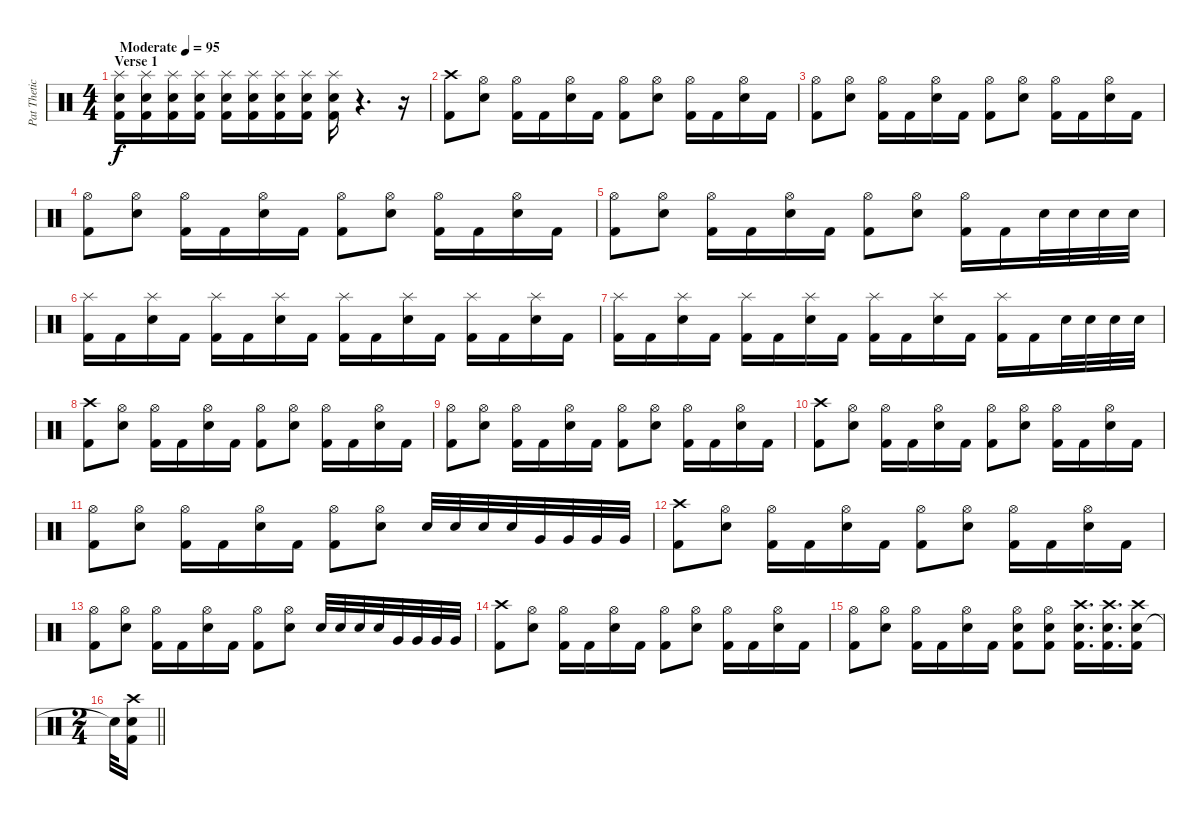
\track ("Pat Thetic" "Pat Thetic") {instrument percussion}
\staff {score}
\articulation defaults
\ts (4 4)
\section ("" "Verse 1")
\tempo (95 "Moderate")
\clef neutral
\ks c
("Kick (hit) 2" "Snare (hit) 2" "Splash (hit)").16{dy f} ("Kick (hit) 2" "Snare (hit) 2" "Splash (hit)").16 ("Kick (hit) 2" "Snare (hit) 2" "Splash (hit)").16 ("Kick (hit) 2" "Snare (hit) 2" "Splash (hit)").16 ("Kick (hit) 2" "Snare (hit) 2" "Splash (hit)").16 ("Kick (hit) 2" "Snare (hit) 2" "Splash (hit)").16 ("Kick (hit) 2" "Snare (hit) 2" "Splash (hit)").16 ("Kick (hit) 2" "Snare (hit) 2" "Splash (hit)").16 ("Kick (hit) 2" "Snare (hit) 2" "Splash (hit)").16 r.4{d} r.16 |
("Kick (hit) 2" "Crash high (hit)").8 ("Snare (hit) 2" "Hi-Hat (open)").8 ("Kick (hit) 2" "Hi-Hat (open)").16 "Kick (hit) 2".16 ("Snare (hit) 2" "Hi-Hat (open)").16 "Kick (hit) 2".16 ("Kick (hit) 2" "Hi-Hat (open)").8 ("Snare (hit) 2" "Hi-Hat (open)").8 ("Kick (hit) 2" "Hi-Hat (open)").16 "Kick (hit) 2".16 ("Snare (hit) 2" "Hi-Hat (open)").16 "Kick (hit) 2".16 |
("Kick (hit) 2" "Hi-Hat (open)").8 ("Snare (hit) 2" "Hi-Hat (open)").8 ("Kick (hit) 2" "Hi-Hat (open)").16 "Kick (hit) 2".16 ("Snare (hit) 2" "Hi-Hat (open)").16 "Kick (hit) 2".16 ("Kick (hit) 2" "Hi-Hat (open)").8 ("Snare (hit) 2" "Hi-Hat (open)").8 ("Kick (hit) 2" "Hi-Hat (open)").16 "Kick (hit) 2".16 ("Snare (hit) 2" "Hi-Hat (open)").16 "Kick (hit) 2".16 |
("Kick (hit) 2" "Hi-Hat (open)").8 ("Snare (hit) 2" "Hi-Hat (open)").8 ("Kick (hit) 2" "Hi-Hat (open)").16 "Kick (hit) 2".16 ("Snare (hit) 2" "Hi-Hat (open)").16 "Kick (hit) 2".16 ("Kick (hit) 2" "Hi-Hat (open)").8 ("Snare (hit) 2" "Hi-Hat (open)").8 ("Kick (hit) 2" "Hi-Hat (open)").16 "Kick (hit) 2".16 ("Snare (hit) 2" "Hi-Hat (open)").16 "Kick (hit) 2".16 |
("Kick (hit) 2" "Hi-Hat (open)").8 ("Snare (hit) 2" "Hi-Hat (open)").8 ("Kick (hit) 2" "Hi-Hat (open)").16 "Kick (hit) 2".16 ("Snare (hit) 2" "Hi-Hat (open)").16 "Kick (hit) 2".16 ("Kick (hit) 2" "Hi-Hat (open)").8 ("Snare (hit) 2" "Hi-Hat (open)").8 ("Kick (hit) 2" "Hi-Hat (open)").16 "Kick (hit) 2".16 "Snare (hit) 2".32 "Snare (hit) 2".32 "Snare (hit) 2".32 "Snare (hit) 2".32 |
("Kick (hit) 2" "Splash (hit)").16 "Kick (hit) 2".16 ("Snare (hit) 2" "Splash (hit)").16 "Kick (hit) 2".16 ("Kick (hit) 2" "Splash (hit)").16 "Kick (hit) 2".16 ("Snare (hit) 2" "Splash (hit)").16 "Kick (hit) 2".16 ("Kick (hit) 2" "Splash (hit)").16 "Kick (hit) 2".16 ("Snare (hit) 2" "Splash (hit)").16 "Kick (hit) 2".16 ("Kick (hit) 2" "Splash (hit)").16 "Kick (hit) 2".16 ("Snare (hit) 2" "Splash (hit)").16 "Kick (hit) 2".16 |
("Kick (hit) 2" "Splash (hit)").16 "Kick (hit) 2".16 ("Snare (hit) 2" "Splash (hit)").16 "Kick (hit) 2".16 ("Kick (hit) 2" "Splash (hit)").16 "Kick (hit) 2".16 ("Snare (hit) 2" "Splash (hit)").16 "Kick (hit) 2".16 ("Kick (hit) 2" "Splash (hit)").16 "Kick (hit) 2".16 ("Snare (hit) 2" "Splash (hit)").16 "Kick (hit) 2".16 ("Kick (hit) 2" "Splash (hit)").16 "Kick (hit) 2".16 "Snare (hit) 2".32 "Snare (hit) 2".32 "Snare (hit) 2".32 "Snare (hit) 2".32 |
("Kick (hit) 2" "Crash high (hit)").8 ("Snare (hit) 2" "Hi-Hat (open)").8 ("Kick (hit) 2" "Hi-Hat (open)").16 "Kick (hit) 2".16 ("Snare (hit) 2" "Hi-Hat (open)").16 "Kick (hit) 2".16 ("Kick (hit) 2" "Hi-Hat (open)").8 ("Snare (hit) 2" "Hi-Hat (open)").8 ("Kick (hit) 2" "Hi-Hat (open)").16 "Kick (hit) 2".16 ("Snare (hit) 2" "Hi-Hat (open)").16 "Kick (hit) 2".16 |
("Kick (hit) 2" "Hi-Hat (open)").8 ("Snare (hit) 2" "Hi-Hat (open)").8 ("Kick (hit) 2" "Hi-Hat (open)").16 "Kick (hit) 2".16 ("Snare (hit) 2" "Hi-Hat (open)").16 "Kick (hit) 2".16 ("Kick (hit) 2" "Hi-Hat (open)").8 ("Snare (hit) 2" "Hi-Hat (open)").8 ("Kick (hit) 2" "Hi-Hat (open)").16 "Kick (hit) 2".16 ("Snare (hit) 2" "Hi-Hat (open)").16 "Kick (hit) 2".16 |
("Kick (hit) 2" "Crash high (hit)").8 ("Snare (hit) 2" "Hi-Hat (open)").8 ("Kick (hit) 2" "Hi-Hat (open)").16 "Kick (hit) 2".16 ("Snare (hit) 2" "Hi-Hat (open)").16 "Kick (hit) 2".16 ("Kick (hit) 2" "Hi-Hat (open)").8 ("Snare (hit) 2" "Hi-Hat (open)").8 ("Kick (hit) 2" "Hi-Hat (open)").16 "Kick (hit) 2".16 ("Snare (hit) 2" "Hi-Hat (open)").16 "Kick (hit) 2".16 |
("Kick (hit) 2" "Hi-Hat (open)").8 ("Snare (hit) 2" "Hi-Hat (open)").8 ("Kick (hit) 2" "Hi-Hat (open)").16 "Kick (hit) 2".16 ("Snare (hit) 2" "Hi-Hat (open)").16 "Kick (hit) 2".16 ("Kick (hit) 2" "Hi-Hat (open)").8 ("Snare (hit) 2" "Hi-Hat (open)").8 "Snare (hit) 2".32 "Snare (hit) 2".32 "Snare (hit) 2".32 "Snare (hit) 2".32 "Very Low Tom (hit)".32 "Very Low Tom (hit)".32 "Very Low Tom (hit)".32 "Very Low Tom (hit)".32 |
("Kick (hit) 2" "Crash high (hit)").8 ("Snare (hit) 2" "Hi-Hat (open)").8 ("Kick (hit) 2" "Hi-Hat (open)").16 "Kick (hit) 2".16 ("Snare (hit) 2" "Hi-Hat (open)").16 "Kick (hit) 2".16 ("Kick (hit) 2" "Hi-Hat (open)").8 ("Snare (hit) 2" "Hi-Hat (open)").8 ("Kick (hit) 2" "Hi-Hat (open)").16 "Kick (hit) 2".16 ("Snare (hit) 2" "Hi-Hat (open)").16 "Kick (hit) 2".16 |
("Kick (hit) 2" "Hi-Hat (open)").8 ("Snare (hit) 2" "Hi-Hat (open)").8 ("Kick (hit) 2" "Hi-Hat (open)").16 "Kick (hit) 2".16 ("Snare (hit) 2" "Hi-Hat (open)").16 "Kick (hit) 2".16 ("Kick (hit) 2" "Hi-Hat (open)").8 ("Snare (hit) 2" "Hi-Hat (open)").8 "Snare (hit) 2".32 "Snare (hit) 2".32 "Snare (hit) 2".32 "Snare (hit) 2".32 "Very Low Tom (hit)".32 "Very Low Tom (hit)".32 "Very Low Tom (hit)".32 "Very Low Tom (hit)".32 |
("Kick (hit) 2" "Crash high (hit)").8 ("Snare (hit) 2" "Hi-Hat (open)").8 ("Kick (hit) 2" "Hi-Hat (open)").16 "Kick (hit) 2".16 ("Snare (hit) 2" "Hi-Hat (open)").16 "Kick (hit) 2".16 ("Kick (hit) 2" "Hi-Hat (open)").8 ("Snare (hit) 2" "Hi-Hat (open)").8 ("Kick (hit) 2" "Hi-Hat (open)").16 "Kick (hit) 2".16 ("Snare (hit) 2" "Hi-Hat (open)").16 "Kick (hit) 2".16 |
("Kick (hit) 2" "Hi-Hat (open)").8 ("Snare (hit) 2" "Hi-Hat (open)").8 ("Kick (hit) 2" "Hi-Hat (open)").16 "Kick (hit) 2".16 ("Snare (hit) 2" "Hi-Hat (open)").16 "Kick (hit) 2".16 ("Kick (hit) 2" "Snare (hit) 2" "Hi-Hat (open)").8 ("Kick (hit) 2" "Snare (hit) 2" "Hi-Hat (open)").8 ("Kick (hit) 2" "Snare (hit) 2" "Crash high (hit)").16{d} ("Kick (hit) 2" "Snare (hit) 2" "Crash high (hit)").16{d} ("Snare (hit) 2" "Kick (hit) 2" "Crash high (hit)").16 |
\ts (2 4)
\barLineRight lightlight "Snare (hit)"{t}.32
("Snare (hit) 2" "Kick (hit) 2" "Crash high (hit)").16
